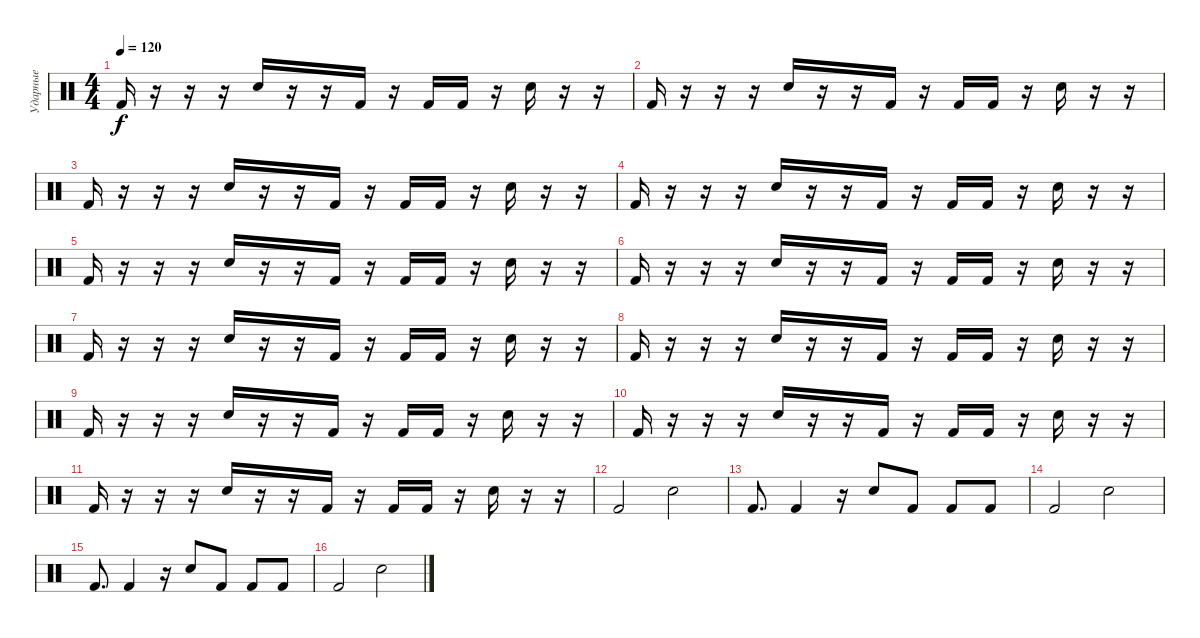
\track ("Ударные" "Ударные") {instrument percussion}
\staff {score}
\articulation defaults
\ts (4 4)
\tempo 120
\clef neutral
\ks c "Kick (hit) 2".16{dy f}
r.16 r.16 r.16 "Electric Snare (hit)".16 r.16 r.16 "Kick (hit) 2".16 r.16 "Kick (hit) 2".16 "Kick (hit) 2".16 r.16 "Electric Snare (hit)".16 r.16 r.16 |
"Kick (hit) 2".16 r.16 r.16 r.16 "Electric Snare (hit)".16 r.16 r.16 "Kick (hit) 2".16 r.16 "Kick (hit) 2".16 "Kick (hit) 2".16 r.16 "Electric Snare (hit)".16 r.16 r.16 |
"Kick (hit) 2".16 r.16 r.16 r.16 "Electric Snare (hit)".16 r.16 r.16 "Kick (hit) 2".16 r.16 "Kick (hit) 2".16 "Kick (hit) 2".16 r.16 "Electric Snare (hit)".16 r.16 r.16 |
"Kick (hit) 2".16 r.16 r.16 r.16 "Electric Snare (hit)".16 r.16 r.16 "Kick (hit) 2".16 r.16 "Kick (hit) 2".16 "Kick (hit) 2".16 r.16 "Electric Snare (hit)".16 r.16 r.16 |
"Kick (hit) 2".16 r.16 r.16 r.16 "Electric Snare (hit)".16 r.16 r.16 "Kick (hit) 2".16 r.16 "Kick (hit) 2".16 "Kick (hit) 2".16 r.16 "Electric Snare (hit)".16 r.16 r.16 |
"Kick (hit) 2".16 r.16 r.16 r.16 "Electric Snare (hit)".16 r.16 r.16 "Kick (hit) 2".16 r.16 "Kick (hit) 2".16 "Kick (hit) 2".16 r.16 "Electric Snare (hit)".16 r.16 r.16 |
"Kick (hit) 2".16 r.16 r.16 r.16 "Electric Snare (hit)".16 r.16 r.16 "Kick (hit) 2".16 r.16 "Kick (hit) 2".16 "Kick (hit) 2".16 r.16 "Electric Snare (hit)".16 r.16 r.16 |
"Kick (hit) 2".16 r.16 r.16 r.16 "Electric Snare (hit)".16 r.16 r.16 "Kick (hit) 2".16 r.16 "Kick (hit) 2".16 "Kick (hit) 2".16 r.16 "Electric Snare (hit)".16 r.16 r.16 |
"Kick (hit) 2".16 r.16 r.16 r.16 "Electric Snare (hit)".16 r.16 r.16 "Kick (hit) 2".16 r.16 "Kick (hit) 2".16 "Kick (hit) 2".16 r.16 "Electric Snare (hit)".16 r.16 r.16 |
"Kick (hit) 2".16 r.16 r.16 r.16 "Electric Snare (hit)".16 r.16 r.16 "Kick (hit) 2".16 r.16 "Kick (hit) 2".16 "Kick (hit) 2".16 r.16 "Electric Snare (hit)".16 r.16 r.16 |
"Kick (hit) 2".16 r.16 r.16 r.16 "Electric Snare (hit)".16 r.16 r.16 "Kick (hit) 2".16 r.16 "Kick (hit) 2".16 "Kick (hit) 2".16 r.16 "Electric Snare (hit)".16 r.16 r.16 |
"Kick (hit) 2".2 "Electric Snare (hit)".2 |
"Kick (hit) 2".8{d} "Kick (hit) 2".4 r.16 "Electric Snare (hit)".8 "Kick (hit) 2".8 "Kick (hit) 2".8 "Kick (hit) 2".8 |
"Kick (hit) 2".2 "Electric Snare (hit)".2 |
"Kick (hit) 2".8{d} "Kick (hit) 2".4 r.16 "Electric Snare (hit)".8 "Kick (hit) 2".8 "Kick (hit) 2".8 "Kick (hit) 2".8 |
"Kick (hit) 2".2 "Electric Snare (hit)".2
